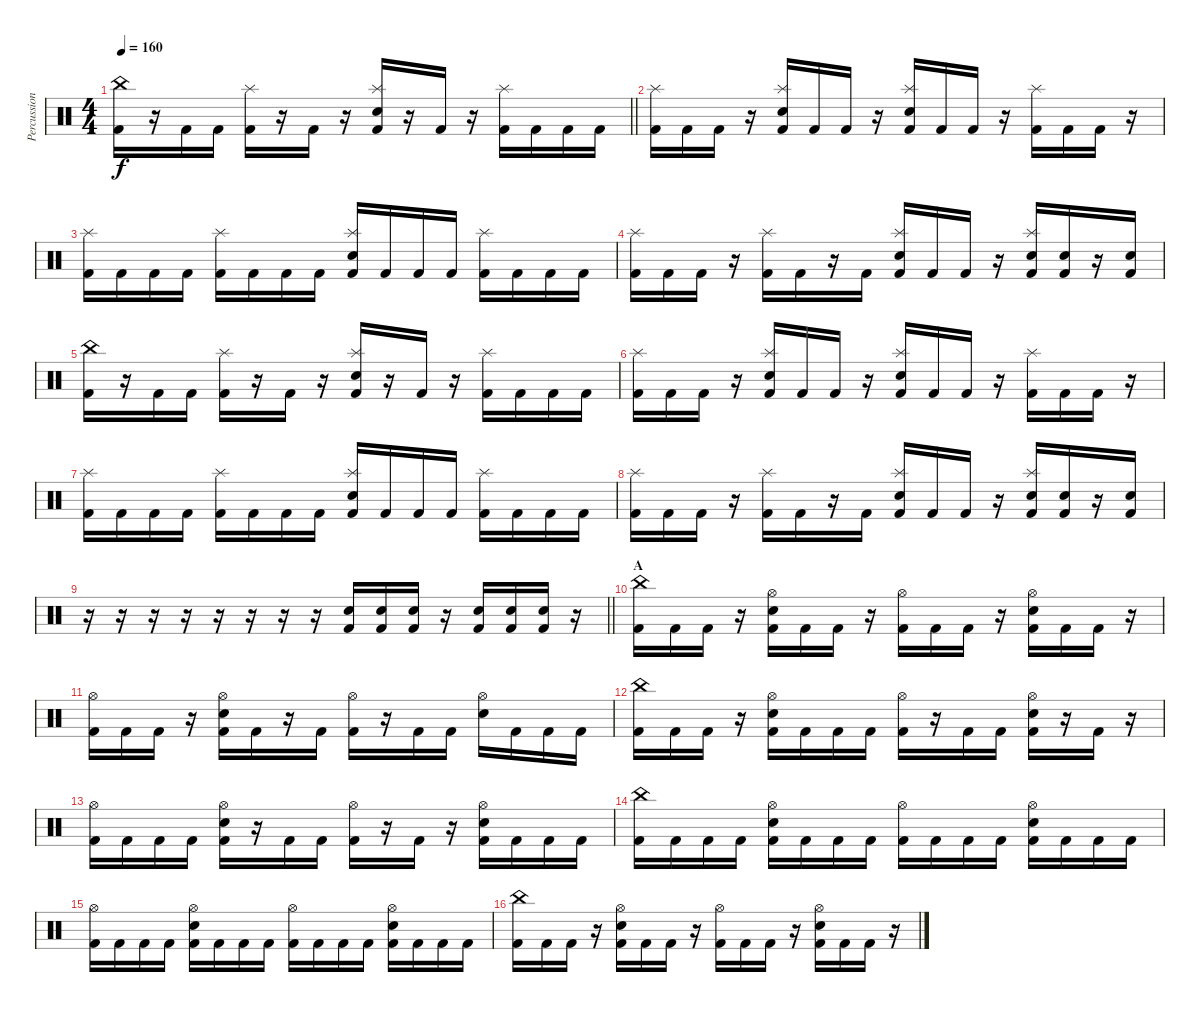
\track ("Percussion" "Percussion") {instrument percussion}
\staff {score}
\articulation defaults
\ts (4 4)
\tempo 160
\clef neutral
\barLineRight lightlight
\ks c
("China (hit)" "Kick (hit) 2").16{dy f} r.16 "Kick (hit) 2".16 "Kick (hit) 2".16 ("Splash (hit)" "Kick (hit) 2").16 r.16 "Kick (hit) 2".16 r.16 ("Splash (hit)" "Electric Snare (hit)" "Kick (hit) 2").16 r.16 "Kick (hit) 2".16 r.16 ("Splash (hit)" "Kick (hit) 2").16 "Kick (hit) 2".16 "Kick (hit) 2".16 "Kick (hit) 2".16 |
("Splash (hit)" "Kick (hit) 2").16 "Kick (hit) 2".16 "Kick (hit) 2".16 r.16 ("Splash (hit)" "Electric Snare (hit)" "Kick (hit) 2").16 "Kick (hit) 2".16 "Kick (hit) 2".16 r.16 ("Splash (hit)" "Electric Snare (hit)" "Kick (hit) 2").16 "Kick (hit) 2".16 "Kick (hit) 2".16 r.16 ("Splash (hit)" "Kick (hit) 2").16 "Kick (hit) 2".16 "Kick (hit) 2".16 r.16 |
("Splash (hit)" "Kick (hit) 2").16 "Kick (hit) 2".16 "Kick (hit) 2".16 "Kick (hit) 2".16 ("Splash (hit)" "Kick (hit) 2").16 "Kick (hit) 2".16 "Kick (hit) 2".16 "Kick (hit) 2".16 ("Splash (hit)" "Electric Snare (hit)" "Kick (hit) 2").16 "Kick (hit) 2".16 "Kick (hit) 2".16 "Kick (hit) 2".16 ("Splash (hit)" "Kick (hit) 2").16 "Kick (hit) 2".16 "Kick (hit) 2".16 "Kick (hit) 2".16 |
("Splash (hit)" "Kick (hit) 2").16 "Kick (hit) 2".16 "Kick (hit) 2".16 r.16 ("Splash (hit)" "Kick (hit) 2").16 "Kick (hit) 2".16 r.16 "Kick (hit) 2".16 ("Splash (hit)" "Electric Snare (hit)" "Kick (hit) 2").16 "Kick (hit) 2".16 "Kick (hit) 2".16 r.16 ("Splash (hit)" "Electric Snare (hit)" "Kick (hit) 2").16 ("Electric Snare (hit)" "Kick (hit) 2").16 r.16 ("Electric Snare (hit)" "Kick (hit) 2").16 |
("China (hit)" "Kick (hit) 2").16 r.16 "Kick (hit) 2".16 "Kick (hit) 2".16 ("Splash (hit)" "Kick (hit) 2").16 r.16 "Kick (hit) 2".16 r.16 ("Splash (hit)" "Electric Snare (hit)" "Kick (hit) 2").16 r.16 "Kick (hit) 2".16 r.16 ("Splash (hit)" "Kick (hit) 2").16 "Kick (hit) 2".16 "Kick (hit) 2".16 "Kick (hit) 2".16 |
("Splash (hit)" "Kick (hit) 2").16 "Kick (hit) 2".16 "Kick (hit) 2".16 r.16 ("Splash (hit)" "Electric Snare (hit)" "Kick (hit) 2").16 "Kick (hit) 2".16 "Kick (hit) 2".16 r.16 ("Splash (hit)" "Electric Snare (hit)" "Kick (hit) 2").16 "Kick (hit) 2".16 "Kick (hit) 2".16 r.16 ("Splash (hit)" "Kick (hit) 2").16 "Kick (hit) 2".16 "Kick (hit) 2".16 r.16 |
("Splash (hit)" "Kick (hit) 2").16 "Kick (hit) 2".16 "Kick (hit) 2".16 "Kick (hit) 2".16 ("Splash (hit)" "Kick (hit) 2").16 "Kick (hit) 2".16 "Kick (hit) 2".16 "Kick (hit) 2".16 ("Splash (hit)" "Electric Snare (hit)" "Kick (hit) 2").16 "Kick (hit) 2".16 "Kick (hit) 2".16 "Kick (hit) 2".16 ("Splash (hit)" "Kick (hit) 2").16 "Kick (hit) 2".16 "Kick (hit) 2".16 "Kick (hit) 2".16 |
("Splash (hit)" "Kick (hit) 2").16 "Kick (hit) 2".16 "Kick (hit) 2".16 r.16 ("Splash (hit)" "Kick (hit) 2").16 "Kick (hit) 2".16 r.16 "Kick (hit) 2".16 ("Splash (hit)" "Electric Snare (hit)" "Kick (hit) 2").16 "Kick (hit) 2".16 "Kick (hit) 2".16 r.16 ("Splash (hit)" "Electric Snare (hit)" "Kick (hit) 2").16 ("Electric Snare (hit)" "Kick (hit) 2").16 r.16 ("Electric Snare (hit)" "Kick (hit) 2").16 |
\barLineRight lightlight
r.16 r.16 r.16 r.16 r.16 r.16 r.16 r.16 ("Electric Snare (hit)" "Kick (hit) 2").16 ("Electric Snare (hit)" "Kick (hit) 2").16 ("Electric Snare (hit)" "Kick (hit) 2").16 r.16 ("Electric Snare (hit)" "Kick (hit) 2").16 ("Electric Snare (hit)" "Kick (hit) 2").16 ("Electric Snare (hit)" "Kick (hit) 2").16 r.16 |
\section ("" "A")
("China (hit)" "Kick (hit) 2").16 "Kick (hit) 2".16 "Kick (hit) 2".16 r.16 ("Hi-Hat (open)" "Electric Snare (hit)" "Kick (hit) 2").16 "Kick (hit) 2".16 "Kick (hit) 2".16 r.16 ("Hi-Hat (open)" "Kick (hit) 2").16 "Kick (hit) 2".16 "Kick (hit) 2".16 r.16 ("Hi-Hat (open)" "Electric Snare (hit)" "Kick (hit) 2").16 "Kick (hit) 2".16 "Kick (hit) 2".16 r.16 |
("Hi-Hat (open)" "Kick (hit) 2").16 "Kick (hit) 2".16 "Kick (hit) 2".16 r.16 ("Hi-Hat (open)" "Electric Snare (hit)" "Kick (hit) 2").16 "Kick (hit) 2".16 r.16 "Kick (hit) 2".16 ("Hi-Hat (open)" "Kick (hit) 2").16 r.16 "Kick (hit) 2".16 "Kick (hit) 2".16 ("Hi-Hat (open)" "Electric Snare (hit)").16 "Kick (hit) 2".16 "Kick (hit) 2".16 "Kick (hit) 2".16 |
("China (hit)" "Kick (hit) 2").16 "Kick (hit) 2".16 "Kick (hit) 2".16 r.16 ("Hi-Hat (open)" "Electric Snare (hit)" "Kick (hit) 2").16 "Kick (hit) 2".16 "Kick (hit) 2".16 "Kick (hit) 2".16 ("Hi-Hat (open)" "Kick (hit) 2").16 r.16 "Kick (hit) 2".16 "Kick (hit) 2".16 ("Hi-Hat (open)" "Electric Snare (hit)" "Kick (hit) 2").16 r.16 "Kick (hit) 2".16 r.16 |
("Hi-Hat (open)" "Kick (hit) 2").16 "Kick (hit) 2".16 "Kick (hit) 2".16 "Kick (hit) 2".16 ("Hi-Hat (open)" "Electric Snare (hit)" "Kick (hit) 2").16 r.16 "Kick (hit) 2".16 "Kick (hit) 2".16 ("Hi-Hat (open)" "Kick (hit) 2").16 r.16 "Kick (hit) 2".16 r.16 ("Hi-Hat (open)" "Electric Snare (hit)" "Kick (hit) 2").16 "Kick (hit) 2".16 "Kick (hit) 2".16 "Kick (hit) 2".16 |
("China (hit)" "Kick (hit) 2").16 "Kick (hit) 2".16 "Kick (hit) 2".16 "Kick (hit) 2".16 ("Hi-Hat (open)" "Electric Snare (hit)" "Kick (hit) 2").16 "Kick (hit) 2".16 "Kick (hit) 2".16 "Kick (hit) 2".16 ("Hi-Hat (open)" "Kick (hit) 2").16 "Kick (hit) 2".16 "Kick (hit) 2".16 "Kick (hit) 2".16 ("Hi-Hat (open)" "Electric Snare (hit)" "Kick (hit) 2").16 "Kick (hit) 2".16 "Kick (hit) 2".16 "Kick (hit) 2".16 |
("Hi-Hat (open)" "Kick (hit) 2").16 "Kick (hit) 2".16 "Kick (hit) 2".16 "Kick (hit) 2".16 ("Hi-Hat (open)" "Electric Snare (hit)" "Kick (hit) 2").16 "Kick (hit) 2".16 "Kick (hit) 2".16 "Kick (hit) 2".16 ("Hi-Hat (open)" "Kick (hit) 2").16 "Kick (hit) 2".16 "Kick (hit) 2".16 "Kick (hit) 2".16 ("Hi-Hat (open)" "Electric Snare (hit)" "Kick (hit) 2").16 "Kick (hit) 2".16 "Kick (hit) 2".16 "Kick (hit) 2".16 |
("China (hit)" "Kick (hit) 2").16 "Kick (hit) 2".16 "Kick (hit) 2".16 r.16 ("Hi-Hat (open)" "Electric Snare (hit)" "Kick (hit) 2").16 "Kick (hit) 2".16 "Kick (hit) 2".16 r.16 ("Hi-Hat (open)" "Kick (hit) 2").16 "Kick (hit) 2".16 "Kick (hit) 2".16 r.16 ("Hi-Hat (open)" "Electric Snare (hit)" "Kick (hit) 2").16 "Kick (hit) 2".16 "Kick (hit) 2".16 r.16
